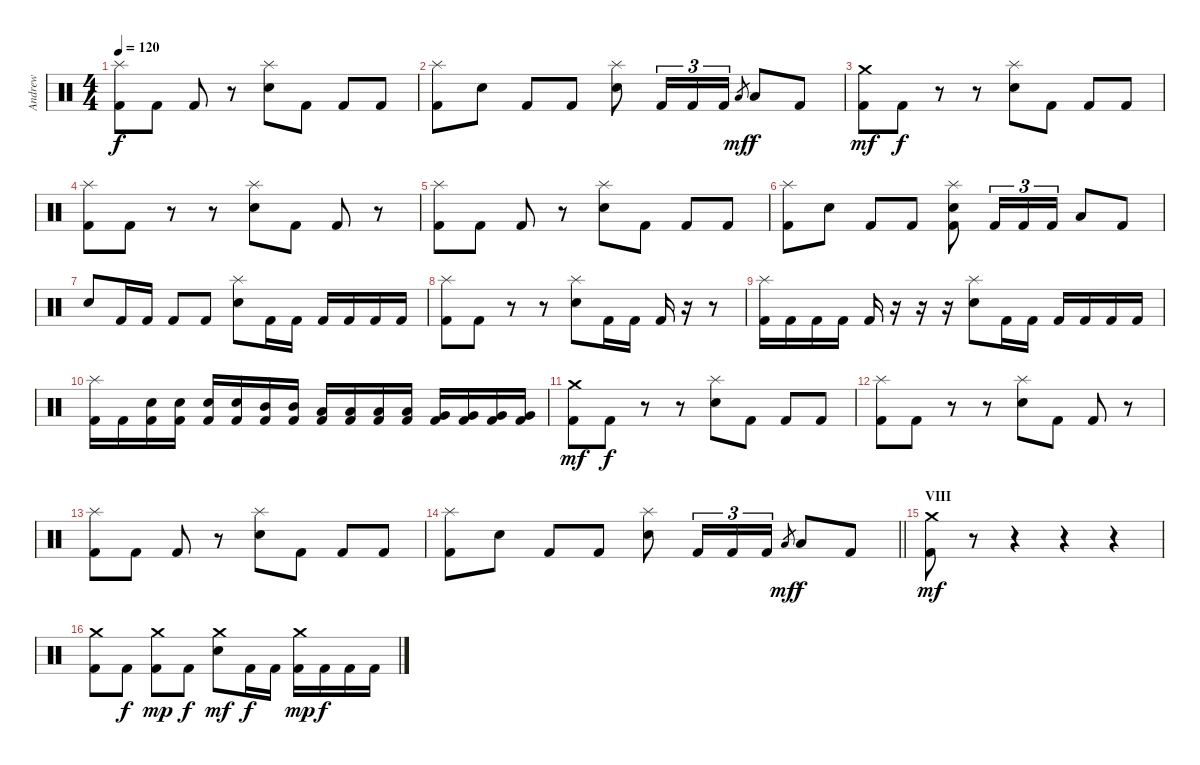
\track ("Andrew" "Andrew") {instrument percussion}
\staff {score}
\articulation defaults
\ts (4 4)
\tempo 120
\clef neutral
\ks c
("Splash (hit)" "Kick (hit) 2").8{dy f} "Kick (hit) 2".8 "Kick (hit) 2".8 r.8 ("Splash (hit)" "Electric Snare (hit)").8 "Kick (hit) 2".8 "Kick (hit) 2".8 "Kick (hit) 2".8 |
("Splash (hit)" "Kick (hit) 2").8 "Electric Snare (hit)".8 "Kick (hit) 2".8 "Kick (hit) 2".8 ("Splash (hit)" "Electric Snare (hit)").8 "Kick (hit) 2".16{tu (3 2)} "Kick (hit) 2".16{tu (3 2)} "Kick (hit) 2".16{tu (3 2)} "Low Tom (hit)".8{gr dy mf} "Low Tom (hit)".8{dy f} "Kick (hit) 2".8 |
("Crash medium (hit)" "Kick (hit) 2").8{dy mf} "Kick (hit) 2".8{dy f} r.8 r.8 ("Splash (hit)" "Electric Snare (hit)").8 "Kick (hit) 2".8 "Kick (hit) 2".8 "Kick (hit) 2".8 |
("Splash (hit)" "Kick (hit) 2").8 "Kick (hit) 2".8 r.8 r.8 ("Splash (hit)" "Electric Snare (hit)").8 "Kick (hit) 2".8 "Kick (hit) 2".8 r.8 |
("Splash (hit)" "Kick (hit) 2").8 "Kick (hit) 2".8 "Kick (hit) 2".8 r.8 ("Splash (hit)" "Electric Snare (hit)").8 "Kick (hit) 2".8 "Kick (hit) 2".8 "Kick (hit) 2".8 |
("Splash (hit)" "Kick (hit) 2").8 "Electric Snare (hit)".8 "Kick (hit) 2".8 "Kick (hit) 2".8 ("Splash (hit)" "Electric Snare (hit)" "Kick (hit) 2").8 "Kick (hit) 2".16{tu (3 2)} "Kick (hit) 2".16{tu (3 2)} "Kick (hit) 2".16{tu (3 2)} "Low Tom (hit)".8 "Kick (hit) 2".8 |
"Electric Snare (hit)".8 "Kick (hit) 2".16 "Kick (hit) 2".16 "Kick (hit) 2".8 "Kick (hit) 2".8 ("Splash (hit)" "Electric Snare (hit)").8 "Kick (hit) 2".16 "Kick (hit) 2".16 "Kick (hit) 2".16 "Kick (hit) 2".16 "Kick (hit) 2".16 "Kick (hit) 2".16 |
("Splash (hit)" "Kick (hit) 2").8 "Kick (hit) 2".8 r.8 r.8 ("Splash (hit)" "Electric Snare (hit)").8 "Kick (hit) 2".16 "Kick (hit) 2".16 "Kick (hit) 2".16 r.16 r.8 |
("Splash (hit)" "Kick (hit) 2").16 "Kick (hit) 2".16 "Kick (hit) 2".16 "Kick (hit) 2".16 "Kick (hit) 2".16 r.16 r.16 r.16 ("Splash (hit)" "Electric Snare (hit)").8 "Kick (hit) 2".16 "Kick (hit) 2".16 "Kick (hit) 2".16 "Kick (hit) 2".16 "Kick (hit) 2".16 "Kick (hit) 2".16 |
("Splash (hit)" "Kick (hit) 2").16 "Kick (hit) 2".16 ("Electric Snare (hit)" "Kick (hit) 2").16 ("Electric Snare (hit)" "Kick (hit) 2").16 ("Electric Snare (hit)" "Kick (hit) 2").16 ("Electric Snare (hit)" "Kick (hit) 2").16 ("Mid Tom (hit)" "Kick (hit) 2").16 ("Mid Tom (hit)" "Kick (hit) 2").16 ("Low Tom (hit)" "Kick (hit) 2").16 ("Low Tom (hit)" "Kick (hit) 2").16 ("Low Tom (hit)" "Kick (hit) 2").16 ("Low Tom (hit)" "Kick (hit) 2").16 ("Very Low Tom (hit)" "Kick (hit) 2").16 ("Very Low Tom (hit)" "Kick (hit) 2").16 ("Very Low Tom (hit)" "Kick (hit) 2").16 ("Very Low Tom (hit)" "Kick (hit) 2").16 |
("Crash medium (hit)" "Kick (hit) 2").8{dy mf} "Kick (hit) 2".8{dy f} r.8 r.8 ("Splash (hit)" "Electric Snare (hit)").8 "Kick (hit) 2".8 "Kick (hit) 2".8 "Kick (hit) 2".8 |
("Splash (hit)" "Kick (hit) 2").8 "Kick (hit) 2".8 r.8 r.8 ("Splash (hit)" "Electric Snare (hit)").8 "Kick (hit) 2".8 "Kick (hit) 2".8 r.8 |
("Splash (hit)" "Kick (hit) 2").8 "Kick (hit) 2".8 "Kick (hit) 2".8 r.8 ("Splash (hit)" "Electric Snare (hit)").8 "Kick (hit) 2".8 "Kick (hit) 2".8 "Kick (hit) 2".8 |
\barLineRight lightlight
("Splash (hit)" "Kick (hit) 2").8 "Electric Snare (hit)".8 "Kick (hit) 2".8 "Kick (hit) 2".8 ("Splash (hit)" "Electric Snare (hit)").8 "Kick (hit) 2".16{tu (3 2)} "Kick (hit) 2".16{tu (3 2)} "Kick (hit) 2".16{tu (3 2)} "Low Tom (hit)".8{gr dy mf} "Low Tom (hit)".8{dy f} "Kick (hit) 2".8 |
\section ("" "VIII")
("Crash medium (hit)" "Kick (hit) 2").8{dy mf} r.8 r.4 r.4 r.4 |
("Crash medium (hit)" "Kick (hit) 2").8 "Kick (hit) 2".8{dy f} ("Crash medium (hit)" "Kick (hit) 2").8{dy mp} "Kick (hit) 2".8{dy f} ("Crash medium (hit)" "Electric Snare (hit)").8{dy mf} "Kick (hit) 2".16{dy f} "Kick (hit) 2".16 ("Crash medium (hit)" "Kick (hit) 2").16{dy mp} "Kick (hit) 2".16{dy f} "Kick (hit) 2".16 "Kick (hit) 2".16
